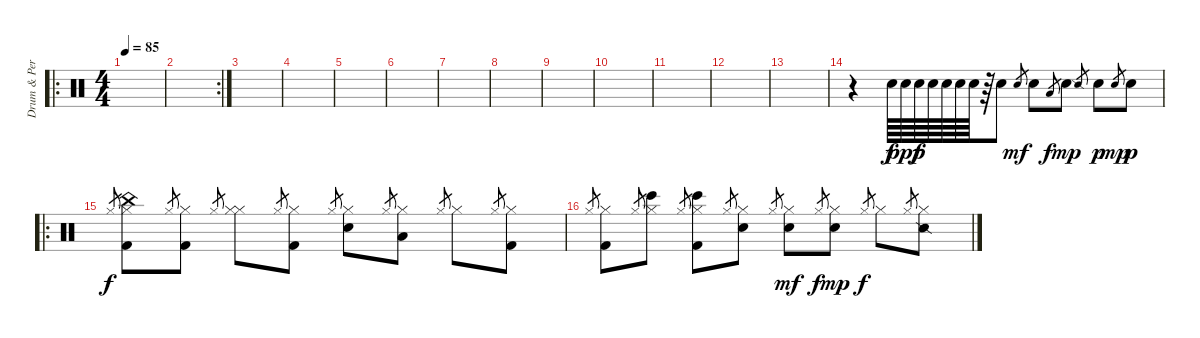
\track ("Drum & Percussions" "Drum & Per") {instrument percussion}
\staff {score}
\articulation defaults
\ro
\ts (4 4)
\tempo 85
\clef neutral
\ks c
|
\rc 2
|
|
|
|
|
|
|
|
|
|
|
|
r.4 "Electric Snare (hit)".64 "Electric Snare (hit)".64{dy ppp} "Electric Snare (hit)".64{dy f} "Electric Snare (hit)".64 "Electric Snare (hit)".64 "Electric Snare (hit)".64 "Electric Snare (hit)".64 r.64 "Electric Snare (hit)".8 "Snare (hit) 2".8{gr dy mf} "Electric Snare (hit)".8 "Low Tom (hit)".8{gr dy f} "Electric Snare (hit)".8{dy mp} "Snare (side stick) 2".8{gr} "Electric Snare (hit)".8{dy p} "Snare (hit)".8{gr dy mp} "Electric Snare (hit)".8{dy p} |
\ro "Hi-Hat (closed)".8{gr dy f}
("Hi-Hat (closed)" "China (hit)" "Kick (hit) 2").8 "Hi-Hat (closed)".8{gr} ("Hi-Hat (closed)" "Kick (hit) 2").8 "Hi-Hat (closed)".8{gr} ("Hi-Hat (closed)" "Hi-Hat (closed)").8 "Hi-Hat (closed)".8{gr} ("Hi-Hat (closed)" "Kick (hit) 2").8 "Hi-Hat (closed)".8{gr} ("Hi-Hat (closed)" "Electric Snare (hit)").8 "Hi-Hat (closed)".8{gr} ("Hi-Hat (closed)" "Low Tom (hit)").8 "Hi-Hat (closed)".8{gr} "Hi-Hat (closed)".8 "Hi-Hat (closed)".8{gr} ("Hi-Hat (closed)" "Kick (hit) 2").8 |
"Hi-Hat (closed)".8{gr} ("Hi-Hat (closed)" "Kick (hit) 2").8 "Hi-Hat (closed)".8{gr} ("Hi-Hat (closed)" "Bongo High (hit)").8 "Hi-Hat (closed)".8{gr} ("Hi-Hat (closed)" "Bongo High (hit)" "Kick (hit) 2").8 "Hi-Hat (closed)".8{gr} ("Hi-Hat (closed)" "Electric Snare (hit)").8 "Hi-Hat (closed)".8{gr} ("Hi-Hat (closed)" "Electric Snare (hit)").8{dy mf} "Hi-Hat (closed)".8{gr dy f} ("Hi-Hat (closed)" "Electric Snare (hit)").8{dy mp} "Hi-Hat (closed)".8{gr dy f} "Hi-Hat (closed)".8 "Hi-Hat (closed)".8{gr} ("Hi-Hat (closed)" "Snare (side stick) 2").8
